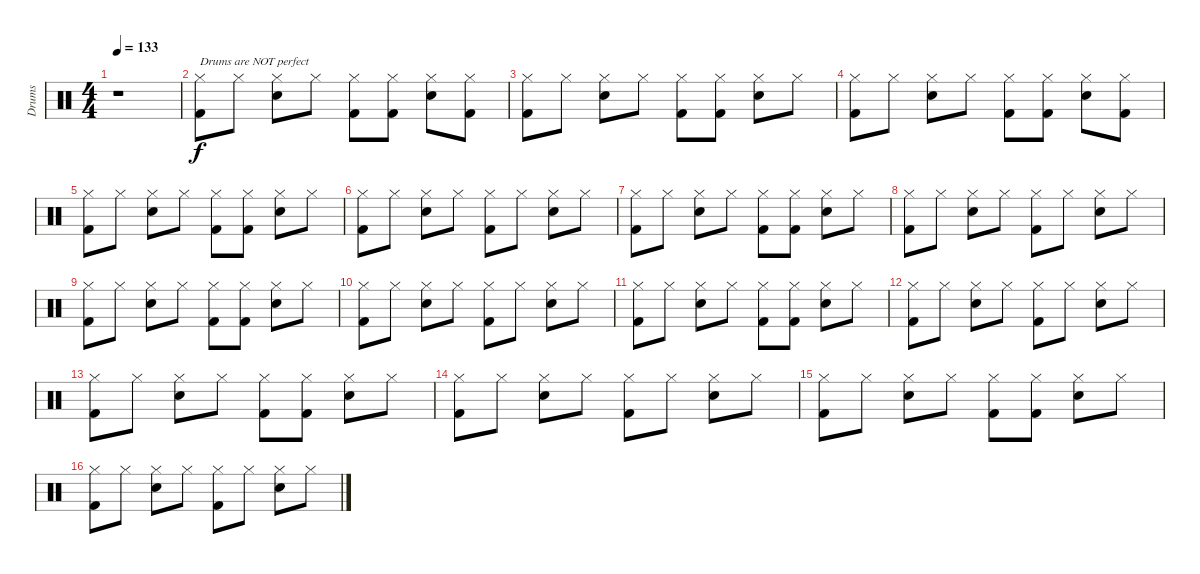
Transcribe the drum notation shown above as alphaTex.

\track ("Drums" "Drums") {instrument percussion}
\staff {score}
\articulation defaults
\ts (4 4)
\tempo 133
\clef neutral
\ks c
r.1{dy f} |
("Kick (hit) 2" "Hi-Hat (closed)").8{txt "Drums are NOT perfect"} "Hi-Hat (closed)".8 ("Snare (hit) 2" "Hi-Hat (closed)").8 "Hi-Hat (closed)".8 ("Kick (hit) 2" "Hi-Hat (closed)").8 ("Kick (hit) 2" "Hi-Hat (closed)").8 ("Snare (hit) 2" "Hi-Hat (closed)").8 ("Kick (hit) 2" "Hi-Hat (closed)").8 |
("Kick (hit) 2" "Hi-Hat (closed)").8 "Hi-Hat (closed)".8 ("Snare (hit) 2" "Hi-Hat (closed)").8 "Hi-Hat (closed)".8 ("Kick (hit) 2" "Hi-Hat (closed)").8 ("Kick (hit) 2" "Hi-Hat (closed)").8 ("Snare (hit) 2" "Hi-Hat (closed)").8 "Hi-Hat (closed)".8 |
("Kick (hit) 2" "Hi-Hat (closed)").8 "Hi-Hat (closed)".8 ("Snare (hit) 2" "Hi-Hat (closed)").8 "Hi-Hat (closed)".8 ("Kick (hit) 2" "Hi-Hat (closed)").8 ("Kick (hit) 2" "Hi-Hat (closed)").8 ("Snare (hit) 2" "Hi-Hat (closed)").8 ("Kick (hit) 2" "Hi-Hat (closed)").8 |
("Kick (hit) 2" "Hi-Hat (closed)").8 "Hi-Hat (closed)".8 ("Snare (hit) 2" "Hi-Hat (closed)").8 "Hi-Hat (closed)".8 ("Kick (hit) 2" "Hi-Hat (closed)").8 ("Kick (hit) 2" "Hi-Hat (closed)").8 ("Snare (hit) 2" "Hi-Hat (closed)").8 "Hi-Hat (closed)".8 |
("Kick (hit) 2" "Hi-Hat (closed)").8 "Hi-Hat (closed)".8 ("Snare (hit) 2" "Hi-Hat (closed)").8 "Hi-Hat (closed)".8 ("Kick (hit) 2" "Hi-Hat (closed)").8 "Hi-Hat (closed)".8 ("Snare (hit) 2" "Hi-Hat (closed)").8 "Hi-Hat (closed)".8 |
("Kick (hit) 2" "Hi-Hat (closed)").8 "Hi-Hat (closed)".8 ("Snare (hit) 2" "Hi-Hat (closed)").8 "Hi-Hat (closed)".8 ("Kick (hit) 2" "Hi-Hat (closed)").8 ("Kick (hit) 2" "Hi-Hat (closed)").8 ("Snare (hit) 2" "Hi-Hat (closed)").8 "Hi-Hat (closed)".8 |
("Kick (hit) 2" "Hi-Hat (closed)").8 "Hi-Hat (closed)".8 ("Snare (hit) 2" "Hi-Hat (closed)").8 "Hi-Hat (closed)".8 ("Kick (hit) 2" "Hi-Hat (closed)").8 "Hi-Hat (closed)".8 ("Snare (hit) 2" "Hi-Hat (closed)").8 "Hi-Hat (closed)".8 |
("Kick (hit) 2" "Hi-Hat (closed)").8 "Hi-Hat (closed)".8 ("Snare (hit) 2" "Hi-Hat (closed)").8 "Hi-Hat (closed)".8 ("Kick (hit) 2" "Hi-Hat (closed)").8 ("Kick (hit) 2" "Hi-Hat (closed)").8 ("Snare (hit) 2" "Hi-Hat (closed)").8 "Hi-Hat (closed)".8 |
("Kick (hit) 2" "Hi-Hat (closed)").8 "Hi-Hat (closed)".8 ("Snare (hit) 2" "Hi-Hat (closed)").8 "Hi-Hat (closed)".8 ("Kick (hit) 2" "Hi-Hat (closed)").8 "Hi-Hat (closed)".8 ("Snare (hit) 2" "Hi-Hat (closed)").8 "Hi-Hat (closed)".8 |
("Kick (hit) 2" "Hi-Hat (closed)").8 "Hi-Hat (closed)".8 ("Snare (hit) 2" "Hi-Hat (closed)").8 "Hi-Hat (closed)".8 ("Kick (hit) 2" "Hi-Hat (closed)").8 ("Kick (hit) 2" "Hi-Hat (closed)").8 ("Snare (hit) 2" "Hi-Hat (closed)").8 "Hi-Hat (closed)".8 |
("Kick (hit) 2" "Hi-Hat (closed)").8 "Hi-Hat (closed)".8 ("Snare (hit) 2" "Hi-Hat (closed)").8 "Hi-Hat (closed)".8 ("Kick (hit) 2" "Hi-Hat (closed)").8 "Hi-Hat (closed)".8 ("Snare (hit) 2" "Hi-Hat (closed)").8 "Hi-Hat (closed)".8 |
("Kick (hit) 2" "Hi-Hat (closed)").8 "Hi-Hat (closed)".8 ("Snare (hit) 2" "Hi-Hat (closed)").8 "Hi-Hat (closed)".8 ("Kick (hit) 2" "Hi-Hat (closed)").8 ("Kick (hit) 2" "Hi-Hat (closed)").8 ("Snare (hit) 2" "Hi-Hat (closed)").8 "Hi-Hat (closed)".8 |
("Kick (hit) 2" "Hi-Hat (closed)").8 "Hi-Hat (closed)".8 ("Snare (hit) 2" "Hi-Hat (closed)").8 "Hi-Hat (closed)".8 ("Kick (hit) 2" "Hi-Hat (closed)").8 "Hi-Hat (closed)".8 ("Snare (hit) 2" "Hi-Hat (closed)").8 "Hi-Hat (closed)".8 |
("Kick (hit) 2" "Hi-Hat (closed)").8 "Hi-Hat (closed)".8 ("Snare (hit) 2" "Hi-Hat (closed)").8 "Hi-Hat (closed)".8 ("Kick (hit) 2" "Hi-Hat (closed)").8 ("Kick (hit) 2" "Hi-Hat (closed)").8 ("Snare (hit) 2" "Hi-Hat (closed)").8 "Hi-Hat (closed)".8 |
("Kick (hit) 2" "Hi-Hat (closed)").8 "Hi-Hat (closed)".8 ("Snare (hit) 2" "Hi-Hat (closed)").8 "Hi-Hat (closed)".8 ("Kick (hit) 2" "Hi-Hat (closed)").8 "Hi-Hat (closed)".8 ("Snare (hit) 2" "Hi-Hat (closed)").8 "Hi-Hat (closed)".8
